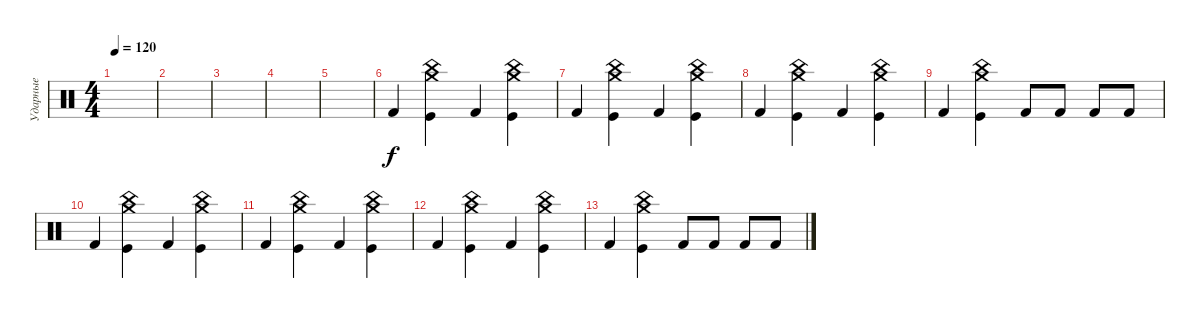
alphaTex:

\track ("Ударные" "Ударные") {instrument percussion}
\staff {score}
\articulation defaults
\ts (4 4)
\tempo 120
\clef neutral
\ks c
|
|
|
|
|
"Kick (hit) 2".4 ("China (hit)" "Crash medium (hit)" "Kick (hit)").4 "Kick (hit) 2".4 ("China (hit)" "Crash medium (hit)" "Kick (hit)").4 |
"Kick (hit) 2".4 ("China (hit)" "Crash medium (hit)" "Kick (hit)").4 "Kick (hit) 2".4 ("China (hit)" "Crash medium (hit)" "Kick (hit)").4 |
"Kick (hit) 2".4 ("China (hit)" "Crash medium (hit)" "Kick (hit)").4 "Kick (hit) 2".4 ("China (hit)" "Crash medium (hit)" "Kick (hit)").4 |
"Kick (hit) 2".4 ("China (hit)" "Crash medium (hit)" "Kick (hit)").4 "Kick (hit) 2".8 "Kick (hit) 2".8 "Kick (hit) 2".8 "Kick (hit) 2".8 |
"Kick (hit) 2".4 ("China (hit)" "Crash medium (hit)" "Kick (hit)").4 "Kick (hit) 2".4 ("China (hit)" "Crash medium (hit)" "Kick (hit)").4 |
"Kick (hit) 2".4 ("China (hit)" "Crash medium (hit)" "Kick (hit)").4 "Kick (hit) 2".4 ("China (hit)" "Crash medium (hit)" "Kick (hit)").4 |
"Kick (hit) 2".4 ("China (hit)" "Crash medium (hit)" "Kick (hit)").4 "Kick (hit) 2".4 ("China (hit)" "Crash medium (hit)" "Kick (hit)").4 |
"Kick (hit) 2".4 ("China (hit)" "Crash medium (hit)" "Kick (hit)").4 "Kick (hit) 2".8 "Kick (hit) 2".8 "Kick (hit) 2".8 "Kick (hit) 2".8
